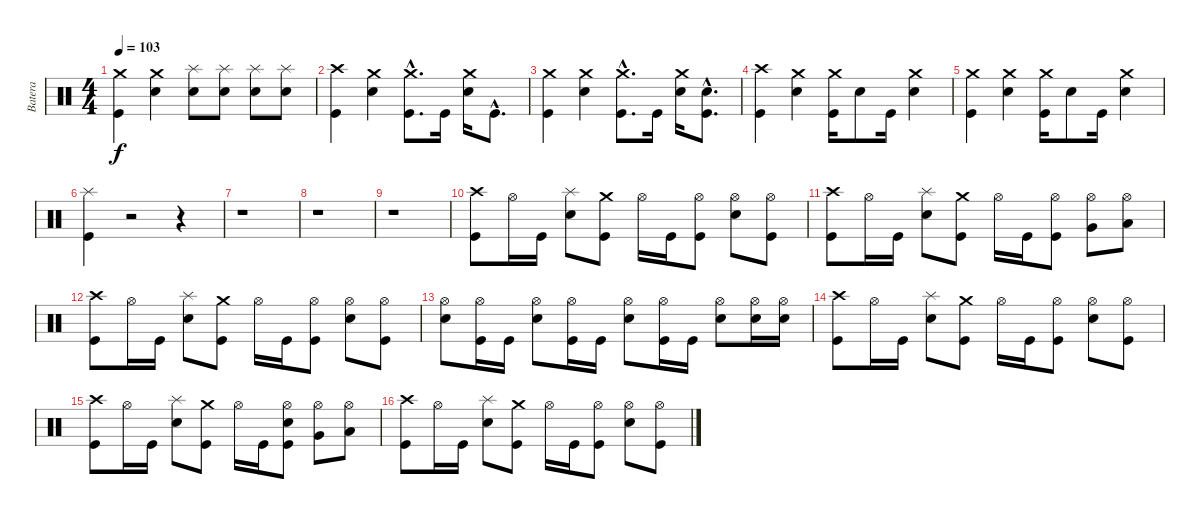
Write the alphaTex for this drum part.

\track ("Batera" "Batera") {instrument percussion}
\staff {score}
\articulation defaults
\ts (4 4)
\tempo 103
\clef neutral
\ks c
("Crash medium (hit)" "Kick (hit)").4{dy f} ("Crash medium (hit)" "Snare (hit) 2").4 ("Splash (hit)" "Snare (hit) 2").8 ("Splash (hit)" "Snare (hit) 2").8 ("Splash (hit)" "Snare (hit) 2").8 ("Splash (hit)" "Snare (hit) 2").8 |
("Crash high (hit)" "Kick (hit)").4 ("Crash medium (hit)" "Snare (hit) 2").4 ("Crash medium (hit)"{hac} "Kick (hit)"{hac}).8{d} "Kick (hit)".16 ("Crash medium (hit)" "Snare (hit) 2").16 "Kick (hit)"{hac}.8{d} |
("Crash medium (hit)" "Kick (hit)").4 ("Crash medium (hit)" "Snare (hit) 2").4 ("Crash medium (hit)"{hac} "Kick (hit)"{hac}).8{d} "Kick (hit)".16 ("Crash medium (hit)" "Snare (hit) 2").16 ("Snare (hit) 2"{hac} "Kick (hit)"{hac}).8{d} |
("Crash high (hit)" "Kick (hit)").4 ("Crash medium (hit)" "Snare (hit) 2").4 ("Crash medium (hit)" "Kick (hit)").16 "Snare (hit) 2".8 "Kick (hit)".16 ("Crash medium (hit)" "Snare (hit) 2").4 |
("Crash medium (hit)" "Kick (hit)").4 ("Crash medium (hit)" "Snare (hit) 2").4 ("Crash medium (hit)" "Kick (hit)").16 "Snare (hit) 2".8 "Kick (hit)".16 ("Crash medium (hit)" "Snare (hit) 2").4 |
("Splash (hit)" "Kick (hit)").4 r.2 r.4 |
r.1 |
r.1 |
r.1 |
("Crash high (hit)" "Kick (hit)").8 "Hi-Hat (open)".16 "Kick (hit)".16 ("Splash (hit)" "Snare (hit) 2").8 ("Crash medium (hit)" "Kick (hit)").8 "Hi-Hat (open)".16 "Kick (hit)".16 ("Hi-Hat (open)" "Kick (hit)").8 ("Hi-Hat (open)" "Snare (hit) 2").8 ("Hi-Hat (open)" "Kick (hit)").8 |
("Crash high (hit)" "Kick (hit)").8 "Hi-Hat (open)".16 "Kick (hit)".16 ("Splash (hit)" "Snare (hit) 2").8 ("Crash medium (hit)" "Kick (hit)").8 "Hi-Hat (open)".16 "Kick (hit)".16 ("Hi-Hat (open)" "Kick (hit)").8 ("Hi-Hat (open)" "Very Low Tom (hit)").8 ("Hi-Hat (open)" "Low Floor Tom (hit)").8 |
("Crash high (hit)" "Kick (hit)").8 "Hi-Hat (open)".16 "Kick (hit)".16 ("Splash (hit)" "Snare (hit) 2").8 ("Crash medium (hit)" "Kick (hit)").8 "Hi-Hat (open)".16 "Kick (hit)".16 ("Hi-Hat (open)" "Kick (hit)").8 ("Hi-Hat (open)" "Snare (hit) 2").8 ("Hi-Hat (open)" "Kick (hit)").8 |
("Hi-Hat (open)" "Snare (hit) 2").8 ("Hi-Hat (open)" "Kick (hit)").16 "Kick (hit)".16 ("Hi-Hat (open)" "Snare (hit) 2").8 ("Hi-Hat (open)" "Kick (hit)").16 "Kick (hit)".16 ("Hi-Hat (open)" "Snare (hit) 2").8 ("Hi-Hat (open)" "Kick (hit)").16 "Kick (hit)".16 ("Hi-Hat (open)" "Snare (hit) 2").8 ("Hi-Hat (open)" "Snare (hit) 2").16 ("Hi-Hat (open)" "Snare (hit) 2").16 |
("Crash high (hit)" "Kick (hit)").8 "Hi-Hat (open)".16 "Kick (hit)".16 ("Splash (hit)" "Snare (hit) 2").8 ("Crash medium (hit)" "Kick (hit)").8 "Hi-Hat (open)".16 "Kick (hit)".16 ("Hi-Hat (open)" "Kick (hit)").8 ("Hi-Hat (open)" "Snare (hit) 2").8 ("Hi-Hat (open)" "Kick (hit)").8 |
("Crash high (hit)" "Kick (hit)").8 "Hi-Hat (open)".16 "Kick (hit)".16 ("Splash (hit)" "Snare (hit) 2").8 ("Crash medium (hit)" "Kick (hit)").8 "Hi-Hat (open)".16 "Kick (hit)".16 ("Hi-Hat (open)" "Snare (hit) 2" "Kick (hit)").8 ("Hi-Hat (open)" "Very Low Tom (hit)").8 ("Hi-Hat (open)" "Low Floor Tom (hit)").8 |
("Crash high (hit)" "Kick (hit)").8 "Hi-Hat (open)".16 "Kick (hit)".16 ("Splash (hit)" "Snare (hit) 2").8 ("Crash medium (hit)" "Kick (hit)").8 "Hi-Hat (open)".16 "Kick (hit)".16 ("Hi-Hat (open)" "Kick (hit)").8 ("Hi-Hat (open)" "Snare (hit) 2").8 ("Hi-Hat (open)" "Kick (hit)").8
